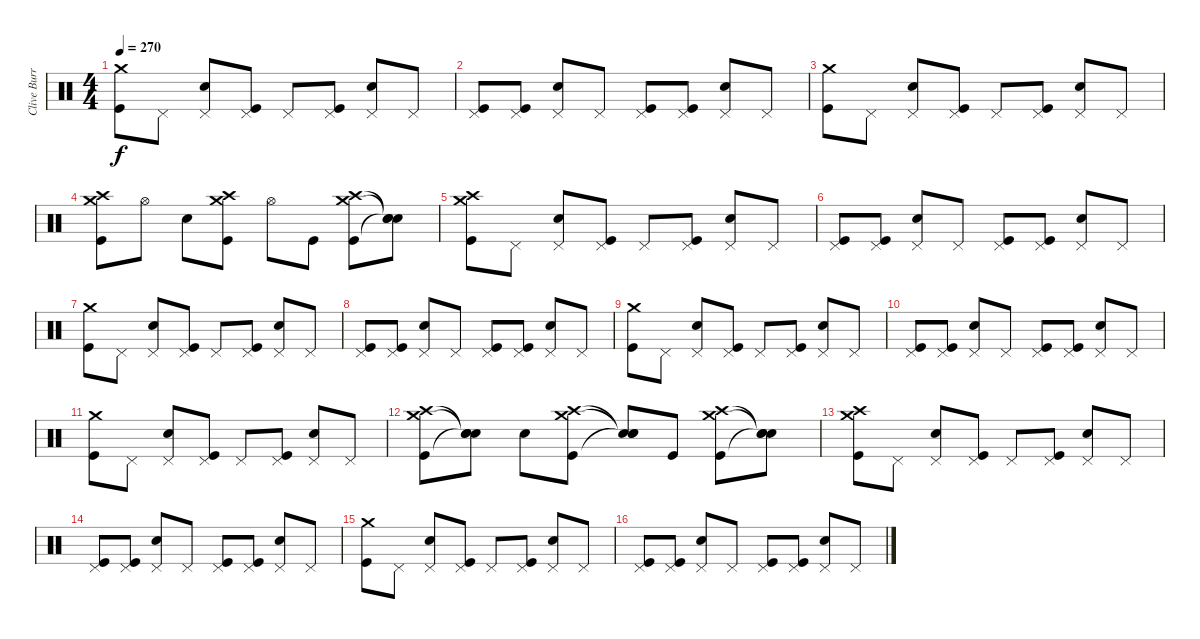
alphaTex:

\track ("Clive Burr" "Clive Burr") {instrument percussion}
\staff {score}
\articulation defaults
\ts (4 4)
\tempo 270
\clef neutral
\ks c
("Crash medium (hit)" "Kick (hit)").8{dy f} "Pedal Hi-Hat (hit)".8 ("Pedal Hi-Hat (hit)" "Snare (hit) 2").8 ("Pedal Hi-Hat (hit)" "Kick (hit)").8 "Pedal Hi-Hat (hit)".8 ("Pedal Hi-Hat (hit)" "Kick (hit)").8 ("Pedal Hi-Hat (hit)" "Snare (hit) 2").8 "Pedal Hi-Hat (hit)".8 |
("Pedal Hi-Hat (hit)" "Kick (hit)").8 ("Pedal Hi-Hat (hit)" "Kick (hit)").8 ("Pedal Hi-Hat (hit)" "Snare (hit) 2").8 "Pedal Hi-Hat (hit)".8 ("Pedal Hi-Hat (hit)" "Kick (hit)").8 ("Pedal Hi-Hat (hit)" "Kick (hit)").8 ("Pedal Hi-Hat (hit)" "Snare (hit) 2").8 "Pedal Hi-Hat (hit)".8 |
("Crash medium (hit)" "Kick (hit)").8 "Pedal Hi-Hat (hit)".8 ("Pedal Hi-Hat (hit)" "Snare (hit) 2").8 ("Pedal Hi-Hat (hit)" "Kick (hit)").8 "Pedal Hi-Hat (hit)".8 ("Pedal Hi-Hat (hit)" "Kick (hit)").8 ("Pedal Hi-Hat (hit)" "Snare (hit) 2").8 "Pedal Hi-Hat (hit)".8 |
("Crash medium (hit)" "Crash high (hit)" "Kick (hit)").8 "Hi-Hat (open)".8 "Snare (hit) 2".8 ("Crash medium (hit)" "Crash high (hit)" "Kick (hit)").8 "Hi-Hat (open)".8 "Kick (hit)".8 ("Crash medium (hit)" "Crash high (hit)" "Kick (hit)").8 ("Snare (hit)"{t} "Snare (hit)"{t} "Snare (hit)"{t}).8 |
("Crash medium (hit)" "Crash high (hit)" "Kick (hit)").8 "Pedal Hi-Hat (hit)".8 ("Pedal Hi-Hat (hit)" "Snare (hit) 2").8 ("Pedal Hi-Hat (hit)" "Kick (hit)").8 "Pedal Hi-Hat (hit)".8 ("Pedal Hi-Hat (hit)" "Kick (hit)").8 ("Pedal Hi-Hat (hit)" "Snare (hit) 2").8 "Pedal Hi-Hat (hit)".8 |
("Pedal Hi-Hat (hit)" "Kick (hit)").8 ("Pedal Hi-Hat (hit)" "Kick (hit)").8 ("Pedal Hi-Hat (hit)" "Snare (hit) 2").8 "Pedal Hi-Hat (hit)".8 ("Pedal Hi-Hat (hit)" "Kick (hit)").8 ("Pedal Hi-Hat (hit)" "Kick (hit)").8 ("Pedal Hi-Hat (hit)" "Snare (hit) 2").8 "Pedal Hi-Hat (hit)".8 |
("Crash medium (hit)" "Kick (hit)").8 "Pedal Hi-Hat (hit)".8 ("Pedal Hi-Hat (hit)" "Snare (hit) 2").8 ("Pedal Hi-Hat (hit)" "Kick (hit)").8 "Pedal Hi-Hat (hit)".8 ("Pedal Hi-Hat (hit)" "Kick (hit)").8 ("Pedal Hi-Hat (hit)" "Snare (hit) 2").8 "Pedal Hi-Hat (hit)".8 |
("Pedal Hi-Hat (hit)" "Kick (hit)").8 ("Pedal Hi-Hat (hit)" "Kick (hit)").8 ("Pedal Hi-Hat (hit)" "Snare (hit) 2").8 "Pedal Hi-Hat (hit)".8 ("Pedal Hi-Hat (hit)" "Kick (hit)").8 ("Pedal Hi-Hat (hit)" "Kick (hit)").8 ("Pedal Hi-Hat (hit)" "Snare (hit) 2").8 "Pedal Hi-Hat (hit)".8 |
("Crash medium (hit)" "Kick (hit)").8 "Pedal Hi-Hat (hit)".8 ("Pedal Hi-Hat (hit)" "Snare (hit) 2").8 ("Pedal Hi-Hat (hit)" "Kick (hit)").8 "Pedal Hi-Hat (hit)".8 ("Pedal Hi-Hat (hit)" "Kick (hit)").8 ("Pedal Hi-Hat (hit)" "Snare (hit) 2").8 "Pedal Hi-Hat (hit)".8 |
("Pedal Hi-Hat (hit)" "Kick (hit)").8 ("Pedal Hi-Hat (hit)" "Kick (hit)").8 ("Pedal Hi-Hat (hit)" "Snare (hit) 2").8 "Pedal Hi-Hat (hit)".8 ("Pedal Hi-Hat (hit)" "Kick (hit)").8 ("Pedal Hi-Hat (hit)" "Kick (hit)").8 ("Pedal Hi-Hat (hit)" "Snare (hit) 2").8 "Pedal Hi-Hat (hit)".8 |
("Crash medium (hit)" "Kick (hit)").8 "Pedal Hi-Hat (hit)".8 ("Pedal Hi-Hat (hit)" "Snare (hit) 2").8 ("Pedal Hi-Hat (hit)" "Kick (hit)").8 "Pedal Hi-Hat (hit)".8 ("Pedal Hi-Hat (hit)" "Kick (hit)").8 ("Pedal Hi-Hat (hit)" "Snare (hit) 2").8 "Pedal Hi-Hat (hit)".8 |
("Crash medium (hit)" "Crash high (hit)" "Kick (hit)").8 ("Snare (hit)"{t} "Snare (hit)"{t} "Snare (hit)"{t}).8 "Snare (hit) 2".8 ("Crash medium (hit)" "Crash high (hit)" "Kick (hit)").8 ("Snare (hit)"{t} "Snare (hit)"{t} "Snare (hit)"{t}).8 "Kick (hit)".8 ("Crash medium (hit)" "Crash high (hit)" "Kick (hit)").8 ("Snare (hit)"{t} "Snare (hit)"{t} "Snare (hit)"{t}).8 |
("Crash medium (hit)" "Crash high (hit)" "Kick (hit)").8 "Pedal Hi-Hat (hit)".8 ("Pedal Hi-Hat (hit)" "Snare (hit) 2").8 ("Pedal Hi-Hat (hit)" "Kick (hit)").8 "Pedal Hi-Hat (hit)".8 ("Pedal Hi-Hat (hit)" "Kick (hit)").8 ("Pedal Hi-Hat (hit)" "Snare (hit) 2").8 "Pedal Hi-Hat (hit)".8 |
("Pedal Hi-Hat (hit)" "Kick (hit)").8 ("Pedal Hi-Hat (hit)" "Kick (hit)").8 ("Pedal Hi-Hat (hit)" "Snare (hit) 2").8 "Pedal Hi-Hat (hit)".8 ("Pedal Hi-Hat (hit)" "Kick (hit)").8 ("Pedal Hi-Hat (hit)" "Kick (hit)").8 ("Pedal Hi-Hat (hit)" "Snare (hit) 2").8 "Pedal Hi-Hat (hit)".8 |
("Crash medium (hit)" "Kick (hit)").8 "Pedal Hi-Hat (hit)".8 ("Pedal Hi-Hat (hit)" "Snare (hit) 2").8 ("Pedal Hi-Hat (hit)" "Kick (hit)").8 "Pedal Hi-Hat (hit)".8 ("Pedal Hi-Hat (hit)" "Kick (hit)").8 ("Pedal Hi-Hat (hit)" "Snare (hit) 2").8 "Pedal Hi-Hat (hit)".8 |
("Pedal Hi-Hat (hit)" "Kick (hit)").8 ("Pedal Hi-Hat (hit)" "Kick (hit)").8 ("Pedal Hi-Hat (hit)" "Snare (hit) 2").8 "Pedal Hi-Hat (hit)".8 ("Pedal Hi-Hat (hit)" "Kick (hit)").8 ("Pedal Hi-Hat (hit)" "Kick (hit)").8 ("Pedal Hi-Hat (hit)" "Snare (hit) 2").8 "Pedal Hi-Hat (hit)".8
